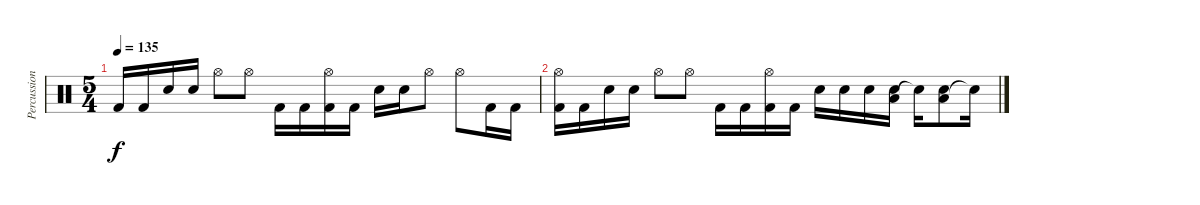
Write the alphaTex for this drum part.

\track ("Percussion" "Percussion") {instrument percussion}
\staff {score}
\articulation defaults
\ts (5 4)
\tempo 135
\clef neutral
\ks c "Kick (hit) 2".16{dy f} "Kick (hit) 2".16 "Snare (hit) 2".16 "Snare (hit) 2".16 "Hi-Hat (open)".8 "Hi-Hat (open)".8 "Kick (hit) 2".16 "Kick (hit) 2".16
("Hi-Hat (open)" "Kick (hit) 2").16 "Kick (hit) 2".16 "Snare (hit) 2".16 "Snare (hit) 2".16 "Hi-Hat (open)".8 "Hi-Hat (open)".8 "Kick (hit) 2".16 "Kick (hit) 2".16 |
("Hi-Hat (open)" "Kick (hit) 2").16 "Kick (hit) 2".16 "Snare (hit) 2".16 "Snare (hit) 2".16 "Hi-Hat (open)".8 "Hi-Hat (open)".8 "Kick (hit) 2".16 "Kick (hit) 2".16 ("Hi-Hat (open)" "Kick (hit) 2").16 "Kick (hit) 2".16 "Snare (hit) 2".16 "Snare (hit) 2".16 "Snare (hit) 2".16 ("Low Floor Tom (hit)" "Snare (hit) 2").16 "Snare (hit) 2"{t}.16 ("Low Floor Tom (hit)" "Snare (hit) 2").8 "Snare (hit) 2"{t}.16
